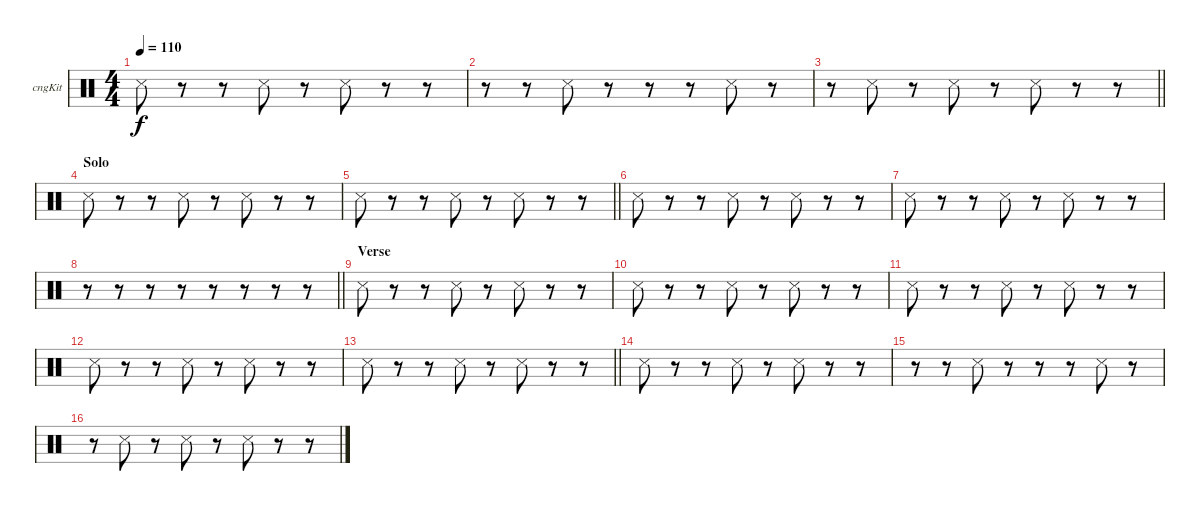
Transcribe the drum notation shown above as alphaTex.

\bracketExtendMode groupsimilarinstruments
\firstSystemTrackNameOrientation horizontal
\otherSystemsTrackNameOrientation horizontal
\track ("Congas" "cngKit") {instrument percussion}
\staff {score}
\articulation defaults
\ts (4 4)
\tempo 110
\clef neutral
\ks c "Snare (side stick) 3".8{dy f}
r.8 r.8 "Snare (side stick) 3".8 r.8 "Snare (side stick) 3".8 r.8 r.8 |
r.8 r.8 "Snare (side stick) 3".8 r.8 r.8 r.8 "Snare (side stick) 3".8 r.8 |
\barLineRight lightlight
r.8 "Snare (side stick) 3".8 r.8 "Snare (side stick) 3".8 r.8 "Snare (side stick) 3".8 r.8 r.8 |
\section ("" "Solo")
"Snare (side stick) 3".8 r.8 r.8 "Snare (side stick) 3".8 r.8 "Snare (side stick) 3".8 r.8 r.8 |
\barLineRight lightlight "Snare (side stick) 3".8
r.8 r.8 "Snare (side stick) 3".8 r.8 "Snare (side stick) 3".8 r.8 r.8 |
"Snare (side stick) 3".8 r.8 r.8 "Snare (side stick) 3".8 r.8 "Snare (side stick) 3".8 r.8 r.8 |
"Snare (side stick) 3".8 r.8 r.8 "Snare (side stick) 3".8 r.8 "Snare (side stick) 3".8 r.8 r.8 |
\barLineRight lightlight
r.8 r.8 r.8 r.8 r.8 r.8 r.8 r.8 |
\section ("" "Verse")
"Snare (side stick) 3".8 r.8 r.8 "Snare (side stick) 3".8 r.8 "Snare (side stick) 3".8 r.8 r.8 |
"Snare (side stick) 3".8 r.8 r.8 "Snare (side stick) 3".8 r.8 "Snare (side stick) 3".8 r.8 r.8 |
"Snare (side stick) 3".8 r.8 r.8 "Snare (side stick) 3".8 r.8 "Snare (side stick) 3".8 r.8 r.8 |
"Snare (side stick) 3".8 r.8 r.8 "Snare (side stick) 3".8 r.8 "Snare (side stick) 3".8 r.8 r.8 |
\barLineRight lightlight "Snare (side stick) 3".8
r.8 r.8 "Snare (side stick) 3".8 r.8 "Snare (side stick) 3".8 r.8 r.8 |
"Snare (side stick) 3".8 r.8 r.8 "Snare (side stick) 3".8 r.8 "Snare (side stick) 3".8 r.8 r.8 |
r.8 r.8 "Snare (side stick) 3".8 r.8 r.8 r.8 "Snare (side stick) 3".8 r.8 |
r.8 "Snare (side stick) 3".8 r.8 "Snare (side stick) 3".8 r.8 "Snare (side stick) 3".8 r.8 r.8
